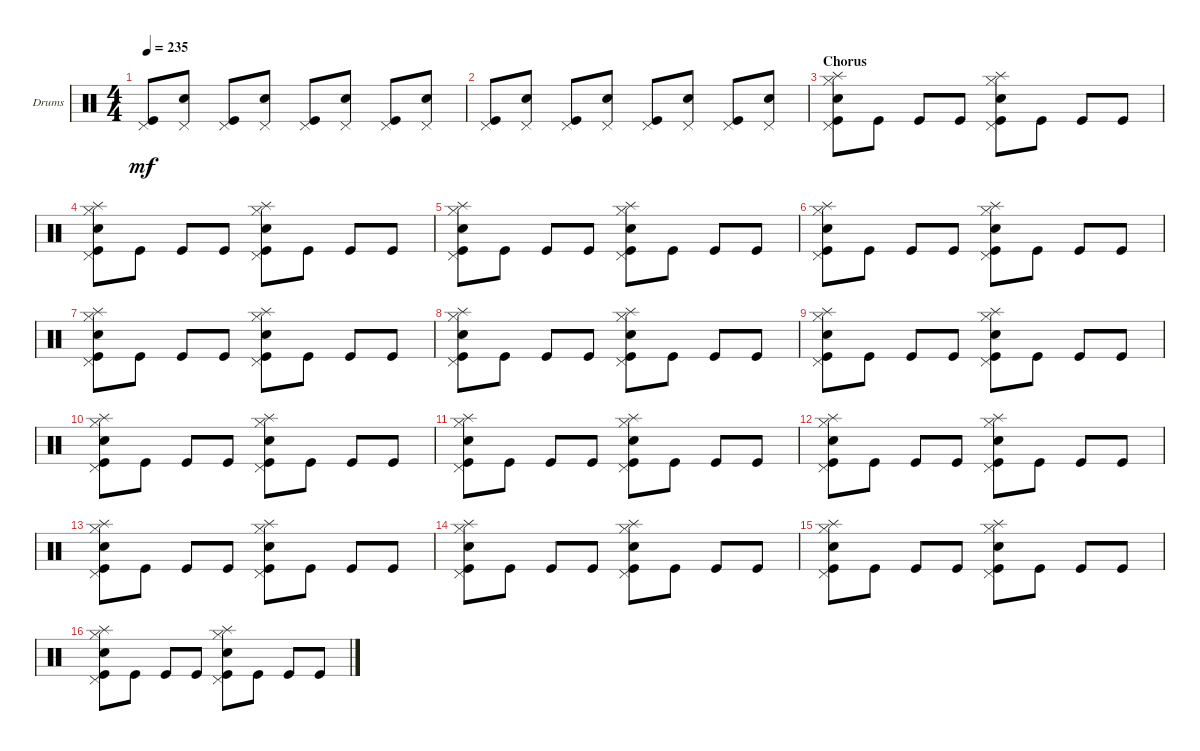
\defaultSystemsLayout 4
\bracketExtendMode groupsimilarinstruments
\firstSystemTrackNameOrientation horizontal
\otherSystemsTrackNameOrientation horizontal
\track ("Drumkit" "Drums") {instrument percussion}
\staff {score}
\articulation defaults
\ts (4 4)
\tempo 235
\clef neutral
\scale
0.333333
\ks c
("Kick (hit)" "Pedal Hi-Hat (hit)").8{dy mf} ("Snare (hit) 2" "Pedal Hi-Hat (hit)").8 ("Kick (hit)" "Pedal Hi-Hat (hit)").8 ("Snare (hit) 2" "Pedal Hi-Hat (hit)").8 ("Kick (hit)" "Pedal Hi-Hat (hit)").8 ("Snare (hit) 2" "Pedal Hi-Hat (hit)").8 ("Kick (hit)" "Pedal Hi-Hat (hit)").8 ("Snare (hit) 2" "Pedal Hi-Hat (hit)").8 |
\scale
0.333333 ("Kick (hit)" "Pedal Hi-Hat (hit)").8 ("Snare (hit) 2" "Pedal Hi-Hat (hit)").8 ("Kick (hit)" "Pedal Hi-Hat (hit)").8 ("Snare (hit) 2" "Pedal Hi-Hat (hit)").8 ("Kick (hit)" "Pedal Hi-Hat (hit)").8 ("Snare (hit) 2" "Pedal Hi-Hat (hit)").8 ("Kick (hit)" "Pedal Hi-Hat (hit)").8 ("Snare (hit) 2" "Pedal Hi-Hat (hit)").8 |
\section ("" "Chorus")
\scale
0.333333 ("Kick (hit)" "Snare (hit) 2" "Pedal Hi-Hat (hit)" "Hi-Hat (closed)" "Splash (hit)").8 "Kick (hit)".8 "Kick (hit)".8 "Kick (hit)".8 ("Kick (hit)" "Pedal Hi-Hat (hit)" "Snare (hit) 2" "Hi-Hat (closed)" "Splash (hit)").8 "Kick (hit)".8 "Kick (hit)".8 "Kick (hit)".8 |
\scale
0.333333 ("Kick (hit)" "Snare (hit) 2" "Pedal Hi-Hat (hit)" "Hi-Hat (closed)" "Splash (hit)").8 "Kick (hit)".8 "Kick (hit)".8 "Kick (hit)".8 ("Kick (hit)" "Pedal Hi-Hat (hit)" "Snare (hit) 2" "Hi-Hat (closed)" "Splash (hit)").8 "Kick (hit)".8 "Kick (hit)".8 "Kick (hit)".8 |
\scale
0.333333 ("Kick (hit)" "Snare (hit) 2" "Pedal Hi-Hat (hit)" "Hi-Hat (closed)" "Splash (hit)").8 "Kick (hit)".8 "Kick (hit)".8 "Kick (hit)".8 ("Kick (hit)" "Pedal Hi-Hat (hit)" "Snare (hit) 2" "Hi-Hat (closed)" "Splash (hit)").8 "Kick (hit)".8 "Kick (hit)".8 "Kick (hit)".8 |
\scale
0.333333 ("Kick (hit)" "Snare (hit) 2" "Pedal Hi-Hat (hit)" "Hi-Hat (closed)" "Splash (hit)").8 "Kick (hit)".8 "Kick (hit)".8 "Kick (hit)".8 ("Kick (hit)" "Pedal Hi-Hat (hit)" "Snare (hit) 2" "Hi-Hat (closed)" "Splash (hit)").8 "Kick (hit)".8 "Kick (hit)".8 "Kick (hit)".8 |
\scale
0.333333 ("Kick (hit)" "Snare (hit) 2" "Pedal Hi-Hat (hit)" "Hi-Hat (closed)" "Splash (hit)").8 "Kick (hit)".8 "Kick (hit)".8 "Kick (hit)".8 ("Kick (hit)" "Pedal Hi-Hat (hit)" "Snare (hit) 2" "Hi-Hat (closed)" "Splash (hit)").8 "Kick (hit)".8 "Kick (hit)".8 "Kick (hit)".8 |
\scale
0.333333 ("Kick (hit)" "Snare (hit) 2" "Pedal Hi-Hat (hit)" "Hi-Hat (closed)" "Splash (hit)").8 "Kick (hit)".8 "Kick (hit)".8 "Kick (hit)".8 ("Kick (hit)" "Pedal Hi-Hat (hit)" "Snare (hit) 2" "Hi-Hat (closed)" "Splash (hit)").8 "Kick (hit)".8 "Kick (hit)".8 "Kick (hit)".8 |
\scale
0.333333 ("Kick (hit)" "Snare (hit) 2" "Pedal Hi-Hat (hit)" "Hi-Hat (closed)" "Splash (hit)").8 "Kick (hit)".8 "Kick (hit)".8 "Kick (hit)".8 ("Kick (hit)" "Pedal Hi-Hat (hit)" "Snare (hit) 2" "Hi-Hat (closed)" "Splash (hit)").8 "Kick (hit)".8 "Kick (hit)".8 "Kick (hit)".8 |
\scale
0.333333 ("Kick (hit)" "Snare (hit) 2" "Pedal Hi-Hat (hit)" "Hi-Hat (closed)" "Splash (hit)").8 "Kick (hit)".8 "Kick (hit)".8 "Kick (hit)".8 ("Kick (hit)" "Pedal Hi-Hat (hit)" "Snare (hit) 2" "Hi-Hat (closed)" "Splash (hit)").8 "Kick (hit)".8 "Kick (hit)".8 "Kick (hit)".8 |
\scale
0.333333 ("Kick (hit)" "Snare (hit) 2" "Pedal Hi-Hat (hit)" "Hi-Hat (closed)" "Splash (hit)").8 "Kick (hit)".8 "Kick (hit)".8 "Kick (hit)".8 ("Kick (hit)" "Pedal Hi-Hat (hit)" "Snare (hit) 2" "Hi-Hat (closed)" "Splash (hit)").8 "Kick (hit)".8 "Kick (hit)".8 "Kick (hit)".8 |
\scale
0.333333 ("Kick (hit)" "Snare (hit) 2" "Pedal Hi-Hat (hit)" "Hi-Hat (closed)" "Splash (hit)").8 "Kick (hit)".8 "Kick (hit)".8 "Kick (hit)".8 ("Kick (hit)" "Pedal Hi-Hat (hit)" "Snare (hit) 2" "Hi-Hat (closed)" "Splash (hit)").8 "Kick (hit)".8 "Kick (hit)".8 "Kick (hit)".8 |
\scale
0.333333 ("Kick (hit)" "Snare (hit) 2" "Pedal Hi-Hat (hit)" "Hi-Hat (closed)" "Splash (hit)").8 "Kick (hit)".8 "Kick (hit)".8 "Kick (hit)".8 ("Kick (hit)" "Pedal Hi-Hat (hit)" "Snare (hit) 2" "Hi-Hat (closed)" "Splash (hit)").8 "Kick (hit)".8 "Kick (hit)".8 "Kick (hit)".8 |
\scale
0.333333 ("Kick (hit)" "Snare (hit) 2" "Pedal Hi-Hat (hit)" "Hi-Hat (closed)" "Splash (hit)").8 "Kick (hit)".8 "Kick (hit)".8 "Kick (hit)".8 ("Kick (hit)" "Pedal Hi-Hat (hit)" "Snare (hit) 2" "Hi-Hat (closed)" "Splash (hit)").8 "Kick (hit)".8 "Kick (hit)".8 "Kick (hit)".8 |
\scale
0.333333 ("Kick (hit)" "Snare (hit) 2" "Pedal Hi-Hat (hit)" "Hi-Hat (closed)" "Splash (hit)").8 "Kick (hit)".8 "Kick (hit)".8 "Kick (hit)".8 ("Kick (hit)" "Pedal Hi-Hat (hit)" "Snare (hit) 2" "Hi-Hat (closed)" "Splash (hit)").8 "Kick (hit)".8 "Kick (hit)".8 "Kick (hit)".8 |
\scale
0.333333 ("Kick (hit)" "Snare (hit) 2" "Pedal Hi-Hat (hit)" "Hi-Hat (closed)" "Splash (hit)").8 "Kick (hit)".8 "Kick (hit)".8 "Kick (hit)".8 ("Kick (hit)" "Pedal Hi-Hat (hit)" "Snare (hit) 2" "Hi-Hat (closed)" "Splash (hit)").8 "Kick (hit)".8 "Kick (hit)".8 "Kick (hit)".8
